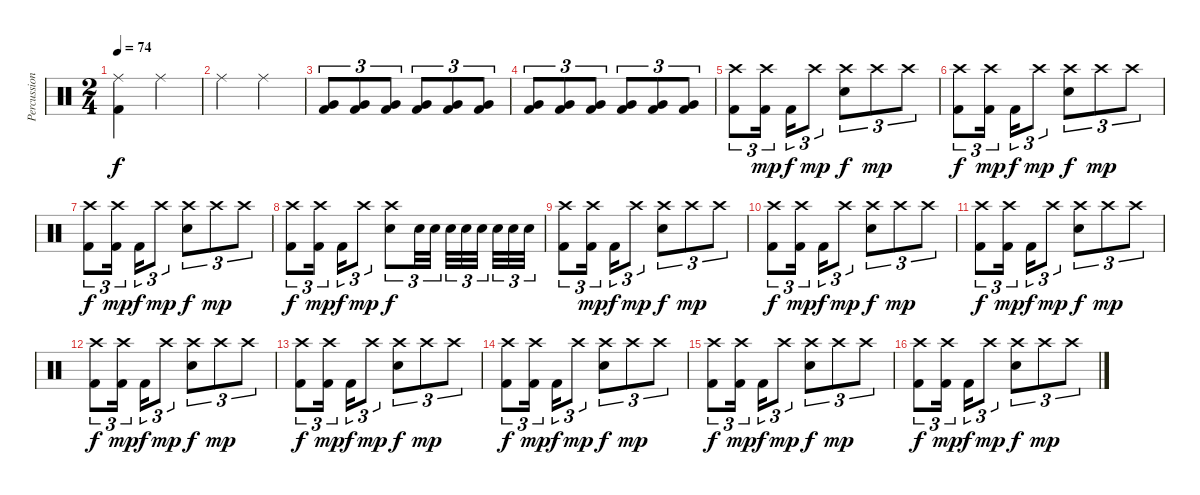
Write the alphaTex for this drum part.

\track ("Percussion" "Percussion") {instrument percussion}
\staff {score}
\articulation defaults
\ts (2 4)
\tempo 74
\clef neutral
\ks c
("Ride (middle)" "Kick (hit) 2").4{dy f} "Ride (middle)".4 |
"Ride (middle)".4 "Ride (middle)".4 |
("Very Low Tom (hit)" "Kick (hit) 2").8{tu (3 2) volume 3} ("Very Low Tom (hit)" "Kick (hit) 2").8{tu (3 2) volume 13} ("Very Low Tom (hit)" "Kick (hit) 2").8{tu (3 2)} ("Very Low Tom (hit)" "Kick (hit) 2").8{tu (3 2)} ("Very Low Tom (hit)" "Kick (hit) 2").8{tu (3 2)} ("Very Low Tom (hit)" "Kick (hit) 2").8{tu (3 2)} |
("Very Low Tom (hit)" "Kick (hit) 2").8{tu (3 2)} ("Very Low Tom (hit)" "Kick (hit) 2").8{tu (3 2)} ("Very Low Tom (hit)" "Kick (hit) 2").8{tu (3 2)} ("Very Low Tom (hit)" "Kick (hit) 2").8{tu (3 2)} ("Very Low Tom (hit)" "Kick (hit) 2").8{tu (3 2)} ("Very Low Tom (hit)" "Kick (hit) 2").8{tu (3 2)} |
("Crash high (hit)" "Kick (hit) 2").8{tu (3 2)} ("Crash high (hit)" "Kick (hit) 2").16{tu (3 2) dy mp} "Kick (hit) 2".16{tu (3 2) dy f} "Crash high (hit)".8{tu (3 2) dy mp} ("Crash high (hit)" "Snare (hit) 2").8{tu (3 2) dy f} "Crash high (hit)".8{tu (3 2) dy mp} "Crash high (hit)".8{tu (3 2)} |
("Crash high (hit)" "Kick (hit) 2").8{tu (3 2) dy f} ("Crash high (hit)" "Kick (hit) 2").16{tu (3 2) dy mp} "Kick (hit) 2".16{tu (3 2) dy f} "Crash high (hit)".8{tu (3 2) dy mp} ("Crash high (hit)" "Snare (hit) 2").8{tu (3 2) dy f} "Crash high (hit)".8{tu (3 2) dy mp} "Crash high (hit)".8{tu (3 2)} |
("Crash high (hit)" "Kick (hit) 2").8{tu (3 2) dy f} ("Crash high (hit)" "Kick (hit) 2").16{tu (3 2) dy mp} "Kick (hit) 2".16{tu (3 2) dy f} "Crash high (hit)".8{tu (3 2) dy mp} ("Crash high (hit)" "Snare (hit) 2").8{tu (3 2) dy f} "Crash high (hit)".8{tu (3 2) dy mp} "Crash high (hit)".8{tu (3 2)} |
("Crash high (hit)" "Kick (hit) 2").8{tu (3 2) dy f} ("Crash high (hit)" "Kick (hit) 2").16{tu (3 2) dy mp} "Kick (hit) 2".16{tu (3 2) dy f} "Crash high (hit)".8{tu (3 2) dy mp} ("Crash high (hit)" "Snare (hit) 2").8{tu (3 2) dy f} "Snare (hit) 2".32{tu (3 2)} "Snare (hit) 2".32{tu (3 2)} "Snare (hit) 2".32{tu (3 2)} "Snare (hit) 2".32{tu (3 2)} "Snare (hit) 2".32{tu (3 2)} "Snare (hit) 2".32{tu (3 2)} "Snare (hit) 2".32{tu (3 2)} "Snare (hit) 2".32{tu (3 2)} |
("Crash high (hit)" "Kick (hit) 2").8{tu (3 2)} ("Crash high (hit)" "Kick (hit) 2").16{tu (3 2) dy mp} "Kick (hit) 2".16{tu (3 2) dy f} "Crash high (hit)".8{tu (3 2) dy mp} ("Crash high (hit)" "Snare (hit) 2").8{tu (3 2) dy f} "Crash high (hit)".8{tu (3 2) dy mp} "Crash high (hit)".8{tu (3 2)} |
("Crash high (hit)" "Kick (hit) 2").8{tu (3 2) dy f} ("Crash high (hit)" "Kick (hit) 2").16{tu (3 2) dy mp} "Kick (hit) 2".16{tu (3 2) dy f} "Crash high (hit)".8{tu (3 2) dy mp} ("Crash high (hit)" "Snare (hit) 2").8{tu (3 2) dy f} "Crash high (hit)".8{tu (3 2) dy mp} "Crash high (hit)".8{tu (3 2)} |
("Crash high (hit)" "Kick (hit) 2").8{tu (3 2) dy f} ("Crash high (hit)" "Kick (hit) 2").16{tu (3 2) dy mp} "Kick (hit) 2".16{tu (3 2) dy f} "Crash high (hit)".8{tu (3 2) dy mp} ("Crash high (hit)" "Snare (hit) 2").8{tu (3 2) dy f} "Crash high (hit)".8{tu (3 2) dy mp} "Crash high (hit)".8{tu (3 2)} |
("Crash high (hit)" "Kick (hit) 2").8{tu (3 2) dy f} ("Crash high (hit)" "Kick (hit) 2").16{tu (3 2) dy mp} "Kick (hit) 2".16{tu (3 2) dy f} "Crash high (hit)".8{tu (3 2) dy mp} ("Crash high (hit)" "Snare (hit) 2").8{tu (3 2) dy f} "Crash high (hit)".8{tu (3 2) dy mp} "Crash high (hit)".8{tu (3 2)} |
("Crash high (hit)" "Kick (hit) 2").8{tu (3 2) dy f} ("Crash high (hit)" "Kick (hit) 2").16{tu (3 2) dy mp} "Kick (hit) 2".16{tu (3 2) dy f} "Crash high (hit)".8{tu (3 2) dy mp} ("Crash high (hit)" "Snare (hit) 2").8{tu (3 2) dy f} "Crash high (hit)".8{tu (3 2) dy mp} "Crash high (hit)".8{tu (3 2)} |
("Crash high (hit)" "Kick (hit) 2").8{tu (3 2) dy f} ("Crash high (hit)" "Kick (hit) 2").16{tu (3 2) dy mp} "Kick (hit) 2".16{tu (3 2) dy f} "Crash high (hit)".8{tu (3 2) dy mp} ("Crash high (hit)" "Snare (hit) 2").8{tu (3 2) dy f} "Crash high (hit)".8{tu (3 2) dy mp} "Crash high (hit)".8{tu (3 2)} |
("Crash high (hit)" "Kick (hit) 2").8{tu (3 2) dy f} ("Crash high (hit)" "Kick (hit) 2").16{tu (3 2) dy mp} "Kick (hit) 2".16{tu (3 2) dy f} "Crash high (hit)".8{tu (3 2) dy mp} ("Crash high (hit)" "Snare (hit) 2").8{tu (3 2) dy f} "Crash high (hit)".8{tu (3 2) dy mp} "Crash high (hit)".8{tu (3 2)} |
("Crash high (hit)" "Kick (hit) 2").8{tu (3 2) dy f} ("Crash high (hit)" "Kick (hit) 2").16{tu (3 2) dy mp} "Kick (hit) 2".16{tu (3 2) dy f} "Crash high (hit)".8{tu (3 2) dy mp} ("Crash high (hit)" "Snare (hit) 2").8{tu (3 2) dy f} "Crash high (hit)".8{tu (3 2) dy mp} "Crash high (hit)".8{tu (3 2)}
